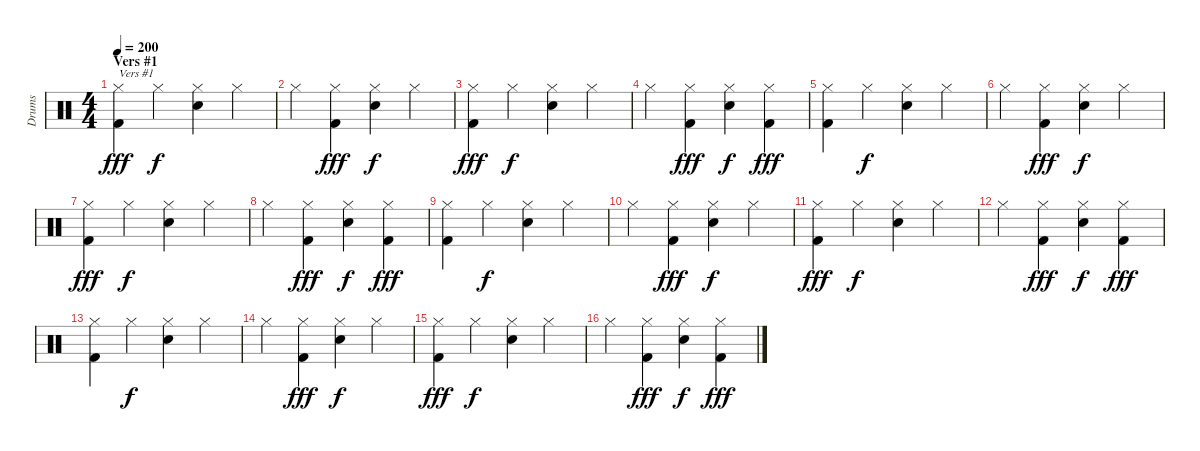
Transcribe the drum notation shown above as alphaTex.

\track ("Drums" "Drums") {instrument percussion}
\staff {score}
\articulation defaults
\ts (4 4)
\section ("" "Vers #1")
\tempo 200
\clef neutral
\ks c
("Hi-Hat (closed)" "Kick (hit) 2").4{txt "Vers #1" dy fff} "Hi-Hat (closed)".4{dy f} ("Hi-Hat (closed)" "Snare (hit) 2").4 "Hi-Hat (closed)".4 |
"Hi-Hat (closed)".4 ("Hi-Hat (closed)" "Kick (hit) 2").4{dy fff} ("Hi-Hat (closed)" "Snare (hit) 2").4{dy f} "Hi-Hat (closed)".4 |
("Hi-Hat (closed)" "Kick (hit) 2").4{dy fff} "Hi-Hat (closed)".4{dy f} ("Hi-Hat (closed)" "Snare (hit) 2").4 "Hi-Hat (closed)".4 |
"Hi-Hat (closed)".4 ("Hi-Hat (closed)" "Kick (hit) 2").4{dy fff} ("Hi-Hat (closed)" "Snare (hit) 2").4{dy f} ("Hi-Hat (closed)" "Kick (hit) 2").4{dy fff} |
("Hi-Hat (closed)" "Kick (hit) 2").4 "Hi-Hat (closed)".4{dy f} ("Hi-Hat (closed)" "Snare (hit) 2").4 "Hi-Hat (closed)".4 |
"Hi-Hat (closed)".4 ("Hi-Hat (closed)" "Kick (hit) 2").4{dy fff} ("Hi-Hat (closed)" "Snare (hit) 2").4{dy f} "Hi-Hat (closed)".4 |
("Hi-Hat (closed)" "Kick (hit) 2").4{dy fff} "Hi-Hat (closed)".4{dy f} ("Hi-Hat (closed)" "Snare (hit) 2").4 "Hi-Hat (closed)".4 |
"Hi-Hat (closed)".4 ("Hi-Hat (closed)" "Kick (hit) 2").4{dy fff} ("Hi-Hat (closed)" "Snare (hit) 2").4{dy f} ("Hi-Hat (closed)" "Kick (hit) 2").4{dy fff} |
("Hi-Hat (closed)" "Kick (hit) 2").4 "Hi-Hat (closed)".4{dy f} ("Hi-Hat (closed)" "Snare (hit) 2").4 "Hi-Hat (closed)".4 |
"Hi-Hat (closed)".4 ("Hi-Hat (closed)" "Kick (hit) 2").4{dy fff} ("Hi-Hat (closed)" "Snare (hit) 2").4{dy f} "Hi-Hat (closed)".4 |
("Hi-Hat (closed)" "Kick (hit) 2").4{dy fff} "Hi-Hat (closed)".4{dy f} ("Hi-Hat (closed)" "Snare (hit) 2").4 "Hi-Hat (closed)".4 |
"Hi-Hat (closed)".4 ("Hi-Hat (closed)" "Kick (hit) 2").4{dy fff} ("Hi-Hat (closed)" "Snare (hit) 2").4{dy f} ("Hi-Hat (closed)" "Kick (hit) 2").4{dy fff} |
("Hi-Hat (closed)" "Kick (hit) 2").4 "Hi-Hat (closed)".4{dy f} ("Hi-Hat (closed)" "Snare (hit) 2").4 "Hi-Hat (closed)".4 |
"Hi-Hat (closed)".4 ("Hi-Hat (closed)" "Kick (hit) 2").4{dy fff} ("Hi-Hat (closed)" "Snare (hit) 2").4{dy f} "Hi-Hat (closed)".4 |
("Hi-Hat (closed)" "Kick (hit) 2").4{dy fff} "Hi-Hat (closed)".4{dy f} ("Hi-Hat (closed)" "Snare (hit) 2").4 "Hi-Hat (closed)".4 |
"Hi-Hat (closed)".4 ("Hi-Hat (closed)" "Kick (hit) 2").4{dy fff} ("Hi-Hat (closed)" "Snare (hit) 2").4{dy f} ("Hi-Hat (closed)" "Kick (hit) 2").4{dy fff}
